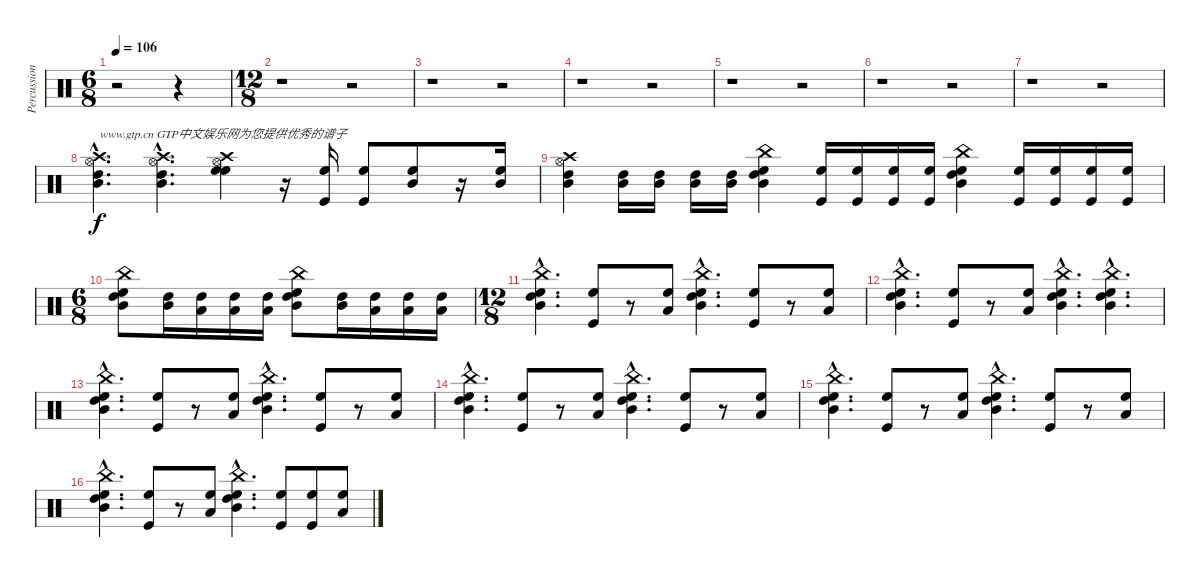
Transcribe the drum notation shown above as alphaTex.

\track ("Percussioni" "Percussion") {instrument percussion}
\staff {score}
\articulation defaults
\ts (6 8)
\tempo 106
\clef neutral
\ks c
r.2{dy f} r.4 |
\ts (12 8)
r.1 r.2 |
r.1 r.2 |
r.1 r.2 |
r.1 r.2 |
r.1 r.2 |
r.1 r.2 |
("Mid Tom (hit)"{hac} "High Tom (hit)"{hac} "Hi-Hat (open)"{hac} "Crash high (hit)"{hac}).4{d txt "www.gtp.cn GTP中文娱乐网为您提供优秀的谱子"} ("Mid Tom (hit)"{hac} "High Tom (hit)"{hac} "Hi-Hat (open)"{hac} "Crash high (hit)"{hac}).4{d} ("High Floor Tom (hit)" "High Floor Tom (hit)" "Hi-Hat (open)" "Crash high (hit)").4 r.16 ("Kick (hit)" "High Floor Tom (hit)").16 ("Kick (hit)" "High Floor Tom (hit)").8 ("Mid Tom (hit)" "High Floor Tom (hit)").8 r.16 ("Mid Tom (hit)" "High Floor Tom (hit)").16 |
("Mid Tom (hit)" "High Tom (hit)" "Hi-Hat (open)" "Crash high (hit)").4 ("Mid Tom (hit)" "High Tom (hit)").16 ("Mid Tom (hit)" "High Tom (hit)").16 ("Mid Tom (hit)" "High Tom (hit)").16 ("Mid Tom (hit)" "High Tom (hit)").16 ("Mid Tom (hit)" "High Tom (hit)" "High Floor Tom (hit)" "China (hit)").4 ("Kick (hit)" "High Floor Tom (hit)").16 ("Kick (hit)" "High Floor Tom (hit)").16 ("Kick (hit)" "High Floor Tom (hit)").16 ("Kick (hit)" "High Floor Tom (hit)").16 ("Mid Tom (hit)" "High Tom (hit)" "High Floor Tom (hit)" "China (hit)").4 ("Kick (hit)" "High Floor Tom (hit)").16 ("Kick (hit)" "High Floor Tom (hit)").16 ("Kick (hit)" "High Floor Tom (hit)").16 ("Kick (hit)" "High Floor Tom (hit)").16 |
\ts (6 8)
("Mid Tom (hit)" "High Tom (hit)" "High Floor Tom (hit)" "China (hit)").8 ("Mid Tom (hit)" "High Tom (hit)").16 ("Low Tom (hit)" "High Tom (hit)").16 ("Low Tom (hit)" "High Tom (hit)").16 ("Low Tom (hit)" "High Tom (hit)").16 ("Mid Tom (hit)" "High Tom (hit)" "High Floor Tom (hit)" "China (hit)").8 ("Mid Tom (hit)" "High Tom (hit)").16 ("Low Tom (hit)" "High Tom (hit)").16 ("Low Tom (hit)" "High Tom (hit)").16 ("Low Tom (hit)" "High Tom (hit)").16 |
\ts (12 8)
("Mid Tom (hit)"{hac} "High Tom (hit)"{hac} "High Floor Tom (hit)"{hac} "China (hit)"{hac}).4{d} ("Kick (hit)" "High Floor Tom (hit)").8 r.8 ("Low Tom (hit)" "High Floor Tom (hit)").8 ("Mid Tom (hit)"{hac} "High Tom (hit)"{hac} "High Floor Tom (hit)"{hac} "China (hit)"{hac}).4{d} ("Kick (hit)" "High Floor Tom (hit)").8 r.8 ("Low Tom (hit)" "High Floor Tom (hit)").8 |
("Mid Tom (hit)"{hac} "High Tom (hit)"{hac} "High Floor Tom (hit)"{hac} "China (hit)"{hac}).4{d} ("Kick (hit)" "High Floor Tom (hit)").8 r.8 ("Low Tom (hit)" "High Floor Tom (hit)").8 ("Mid Tom (hit)"{hac} "High Tom (hit)"{hac} "High Floor Tom (hit)"{hac} "China (hit)"{hac}).4{d} ("Mid Tom (hit)"{hac} "High Tom (hit)"{hac} "High Floor Tom (hit)"{hac} "China (hit)"{hac}).4{d} |
("Mid Tom (hit)"{hac} "High Tom (hit)"{hac} "High Floor Tom (hit)"{hac} "China (hit)"{hac}).4{d} ("Kick (hit)" "High Floor Tom (hit)").8 r.8 ("Low Tom (hit)" "High Floor Tom (hit)").8 ("Mid Tom (hit)"{hac} "High Tom (hit)"{hac} "High Floor Tom (hit)"{hac} "China (hit)"{hac}).4{d} ("Kick (hit)" "High Floor Tom (hit)").8 r.8 ("Low Tom (hit)" "High Floor Tom (hit)").8 |
("Mid Tom (hit)"{hac} "High Tom (hit)"{hac} "High Floor Tom (hit)"{hac} "China (hit)"{hac}).4{d} ("Kick (hit)" "High Floor Tom (hit)").8 r.8 ("Low Tom (hit)" "High Floor Tom (hit)").8 ("Mid Tom (hit)"{hac} "High Tom (hit)"{hac} "High Floor Tom (hit)"{hac} "China (hit)"{hac}).4{d} ("Kick (hit)" "High Floor Tom (hit)").8 r.8 ("Low Tom (hit)" "High Floor Tom (hit)").8 |
("Mid Tom (hit)"{hac} "High Tom (hit)"{hac} "High Floor Tom (hit)"{hac} "China (hit)"{hac}).4{d} ("Kick (hit)" "High Floor Tom (hit)").8 r.8 ("Low Tom (hit)" "High Floor Tom (hit)").8 ("Mid Tom (hit)"{hac} "High Tom (hit)"{hac} "High Floor Tom (hit)"{hac} "China (hit)"{hac}).4{d} ("Kick (hit)" "High Floor Tom (hit)").8 r.8 ("Low Tom (hit)" "High Floor Tom (hit)").8 |
("Mid Tom (hit)"{hac} "High Tom (hit)"{hac} "High Floor Tom (hit)"{hac} "China (hit)"{hac}).4{d} ("Kick (hit)" "High Floor Tom (hit)").8 r.8 ("Low Tom (hit)" "High Floor Tom (hit)").8 ("Mid Tom (hit)"{hac} "High Tom (hit)"{hac} "High Floor Tom (hit)"{hac} "China (hit)"{hac}).4{d} ("Kick (hit)" "High Floor Tom (hit)").8 ("Kick (hit)" "High Floor Tom (hit)").8 ("Low Tom (hit)" "High Floor Tom (hit)").8
